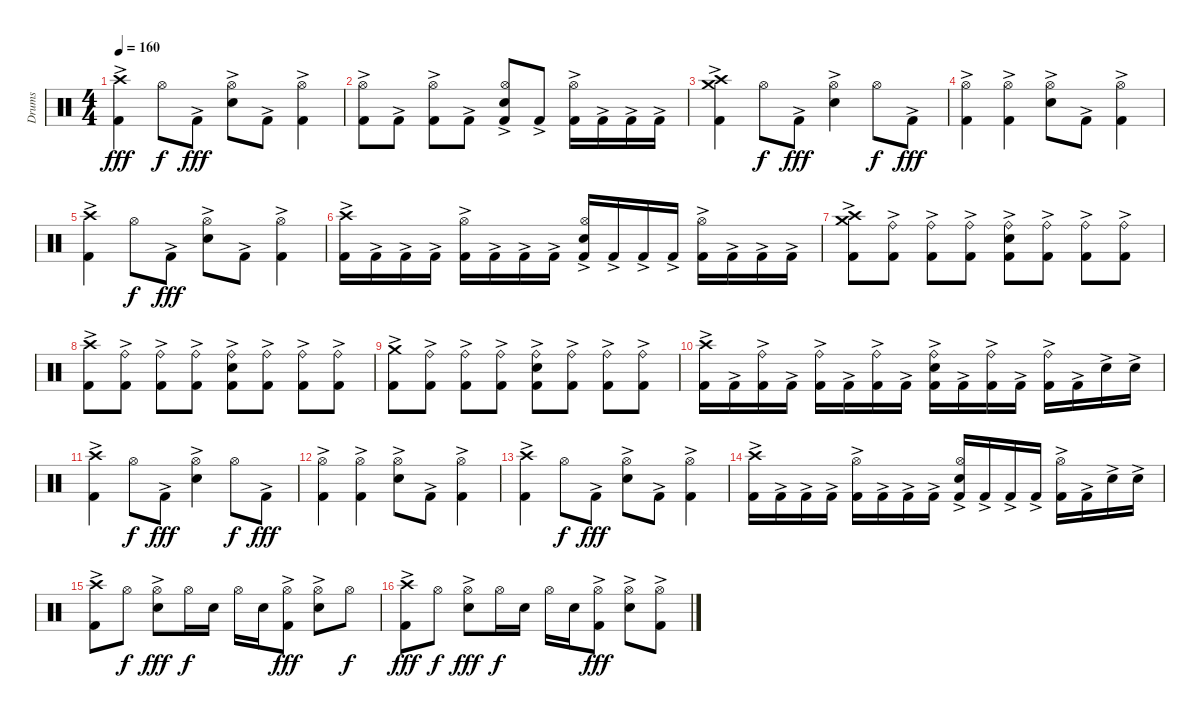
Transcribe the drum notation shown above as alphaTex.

\track ("Drums" "Drums") {instrument percussion}
\staff {score}
\articulation defaults
\ts (4 4)
\tempo 160
\clef neutral
\ks c
("Crash high (hit)" "Kick (hit) 2"{ac}).4{dy fff} "Hi-Hat (open)".8{dy f} "Kick (hit) 2"{ac}.8{dy fff} ("Hi-Hat (open)" "Snare (hit) 2"{ac}).8 "Kick (hit) 2"{ac}.8 ("Hi-Hat (open)" "Kick (hit) 2"{ac}).4 |
("Hi-Hat (open)" "Kick (hit) 2"{ac}).8 "Kick (hit) 2"{ac}.8 ("Hi-Hat (open)" "Kick (hit) 2"{ac}).8 "Kick (hit) 2"{ac}.8 ("Hi-Hat (open)" "Snare (hit) 2"{ac} "Kick (hit) 2"{ac}).8 "Kick (hit) 2"{ac}.8 ("Hi-Hat (open)" "Kick (hit) 2"{ac}).16 "Kick (hit) 2"{ac}.16 "Kick (hit) 2"{ac}.16 "Kick (hit) 2"{ac}.16 |
("Crash high (hit)" "Crash medium (hit)" "Kick (hit) 2"{ac}).4 "Hi-Hat (open)".8{dy f} "Kick (hit) 2"{ac}.8{dy fff} ("Hi-Hat (open)" "Snare (hit) 2"{ac}).4 "Hi-Hat (open)".8{dy f} "Kick (hit) 2"{ac}.8{dy fff} |
("Hi-Hat (open)" "Kick (hit) 2"{ac}).4 ("Hi-Hat (open)" "Kick (hit) 2"{ac}).4 ("Hi-Hat (open)" "Snare (hit) 2"{ac}).8 "Kick (hit) 2"{ac}.8 ("Hi-Hat (open)" "Kick (hit) 2"{ac}).4 |
("Crash high (hit)" "Kick (hit) 2"{ac}).4 "Hi-Hat (open)".8{dy f} "Kick (hit) 2"{ac}.8{dy fff} ("Hi-Hat (open)" "Snare (hit) 2"{ac}).8 "Kick (hit) 2"{ac}.8 ("Hi-Hat (open)" "Kick (hit) 2"{ac}).4 |
("Crash high (hit)" "Kick (hit) 2"{ac}).16 "Kick (hit) 2"{ac}.16 "Kick (hit) 2"{ac}.16 "Kick (hit) 2"{ac}.16 ("Hi-Hat (open)" "Kick (hit) 2"{ac}).16 "Kick (hit) 2"{ac}.16 "Kick (hit) 2"{ac}.16 "Kick (hit) 2"{ac}.16 ("Hi-Hat (open)" "Snare (hit) 2"{ac} "Kick (hit) 2"{ac}).16 "Kick (hit) 2"{ac}.16 "Kick (hit) 2"{ac}.16 "Kick (hit) 2"{ac}.16 ("Hi-Hat (open)" "Kick (hit) 2"{ac}).16 "Kick (hit) 2"{ac}.16 "Kick (hit) 2"{ac}.16 "Kick (hit) 2"{ac}.16 |
("Crash high (hit)" "Crash medium (hit)" "Kick (hit) 2"{ac}).8 ("Ride (bell)" "Kick (hit) 2"{ac}).8 ("Ride (bell)" "Kick (hit) 2"{ac}).8 ("Ride (bell)" "Kick (hit) 2"{ac}).8 ("Ride (bell)" "Snare (hit) 2"{ac} "Kick (hit) 2"{ac}).8 ("Ride (bell)" "Kick (hit) 2"{ac}).8 ("Ride (bell)" "Kick (hit) 2"{ac}).8 ("Ride (bell)" "Kick (hit) 2"{ac}).8 |
("Crash high (hit)" "Kick (hit) 2"{ac}).8 ("Ride (bell)" "Kick (hit) 2"{ac}).8 ("Ride (bell)" "Kick (hit) 2"{ac}).8 ("Ride (bell)" "Kick (hit) 2"{ac}).8 ("Ride (bell)" "Snare (hit) 2"{ac} "Kick (hit) 2"{ac}).8 ("Ride (bell)" "Kick (hit) 2"{ac}).8 ("Ride (bell)" "Kick (hit) 2"{ac}).8 ("Ride (bell)" "Kick (hit) 2"{ac}).8 |
("Crash medium (hit)" "Kick (hit) 2"{ac}).8 ("Ride (bell)" "Kick (hit) 2"{ac}).8 ("Ride (bell)" "Kick (hit) 2"{ac}).8 ("Ride (bell)" "Kick (hit) 2"{ac}).8 ("Ride (bell)" "Snare (hit) 2"{ac} "Kick (hit) 2"{ac}).8 ("Ride (bell)" "Kick (hit) 2"{ac}).8 ("Ride (bell)" "Kick (hit) 2"{ac}).8 ("Ride (bell)" "Kick (hit) 2"{ac}).8 |
("Crash high (hit)"{ac} "Kick (hit) 2"{ac}).16 "Kick (hit) 2"{ac}.16 ("Ride (bell)" "Kick (hit) 2"{ac}).16 "Kick (hit) 2"{ac}.16 ("Ride (bell)"{ac} "Kick (hit) 2"{ac}).16 "Kick (hit) 2"{ac}.16 ("Ride (bell)" "Kick (hit) 2"{ac}).16 "Kick (hit) 2"{ac}.16 ("Ride (bell)"{ac} "Snare (hit) 2"{ac} "Kick (hit) 2"{ac}).16 "Kick (hit) 2"{ac}.16 ("Ride (bell)" "Kick (hit) 2"{ac}).16 "Kick (hit) 2"{ac}.16 ("Ride (bell)"{ac} "Kick (hit) 2"{ac}).16 "Kick (hit) 2"{ac}.16 "Snare (hit) 2"{ac}.16 "Snare (hit) 2"{ac}.16 |
("Crash high (hit)" "Kick (hit) 2"{ac}).4 "Hi-Hat (open)".8{dy f} "Kick (hit) 2"{ac}.8{dy fff} ("Hi-Hat (open)" "Snare (hit) 2"{ac}).4 "Hi-Hat (open)".8{dy f} "Kick (hit) 2"{ac}.8{dy fff} |
("Hi-Hat (open)" "Kick (hit) 2"{ac}).4 ("Hi-Hat (open)" "Kick (hit) 2"{ac}).4 ("Hi-Hat (open)" "Snare (hit) 2"{ac}).8 "Kick (hit) 2"{ac}.8 ("Hi-Hat (open)" "Kick (hit) 2"{ac}).4 |
("Crash high (hit)" "Kick (hit) 2"{ac}).4 "Hi-Hat (open)".8{dy f} "Kick (hit) 2"{ac}.8{dy fff} ("Hi-Hat (open)" "Snare (hit) 2"{ac}).8 "Kick (hit) 2"{ac}.8 ("Hi-Hat (open)" "Kick (hit) 2"{ac}).4 |
("Crash high (hit)" "Kick (hit) 2"{ac}).16 "Kick (hit) 2"{ac}.16 "Kick (hit) 2"{ac}.16 "Kick (hit) 2"{ac}.16 ("Hi-Hat (open)" "Kick (hit) 2"{ac}).16 "Kick (hit) 2"{ac}.16 "Kick (hit) 2"{ac}.16 "Kick (hit) 2"{ac}.16 ("Hi-Hat (open)" "Snare (hit) 2"{ac} "Kick (hit) 2"{ac}).16 "Kick (hit) 2"{ac}.16 "Kick (hit) 2"{ac}.16 "Kick (hit) 2"{ac}.16 ("Hi-Hat (open)" "Kick (hit) 2"{ac}).16 "Kick (hit) 2"{ac}.16 "Snare (hit) 2"{ac}.16 "Snare (hit) 2"{ac}.16 |
("Crash high (hit)" "Kick (hit) 2"{ac}).8 "Hi-Hat (open)".8{dy f} ("Hi-Hat (open)" "Snare (hit) 2"{ac}).8{dy fff} "Hi-Hat (open)".16{dy f} "Snare (hit) 2".16 "Hi-Hat (open)".16 "Snare (hit) 2".16 ("Hi-Hat (open)" "Kick (hit) 2"{ac}).8{dy fff} ("Hi-Hat (open)" "Snare (hit) 2"{ac}).8 "Hi-Hat (open)".8{dy f} |
("Crash high (hit)" "Kick (hit) 2"{ac}).8{dy fff} "Hi-Hat (open)".8{dy f} ("Hi-Hat (open)" "Snare (hit) 2"{ac}).8{dy fff} "Hi-Hat (open)".16{dy f} "Snare (hit) 2".16 "Hi-Hat (open)".16 "Snare (hit) 2".16 ("Hi-Hat (open)" "Kick (hit) 2"{ac}).8{dy fff} ("Hi-Hat (open)" "Snare (hit) 2"{ac}).8 ("Hi-Hat (open)" "Kick (hit) 2"{ac}).8
